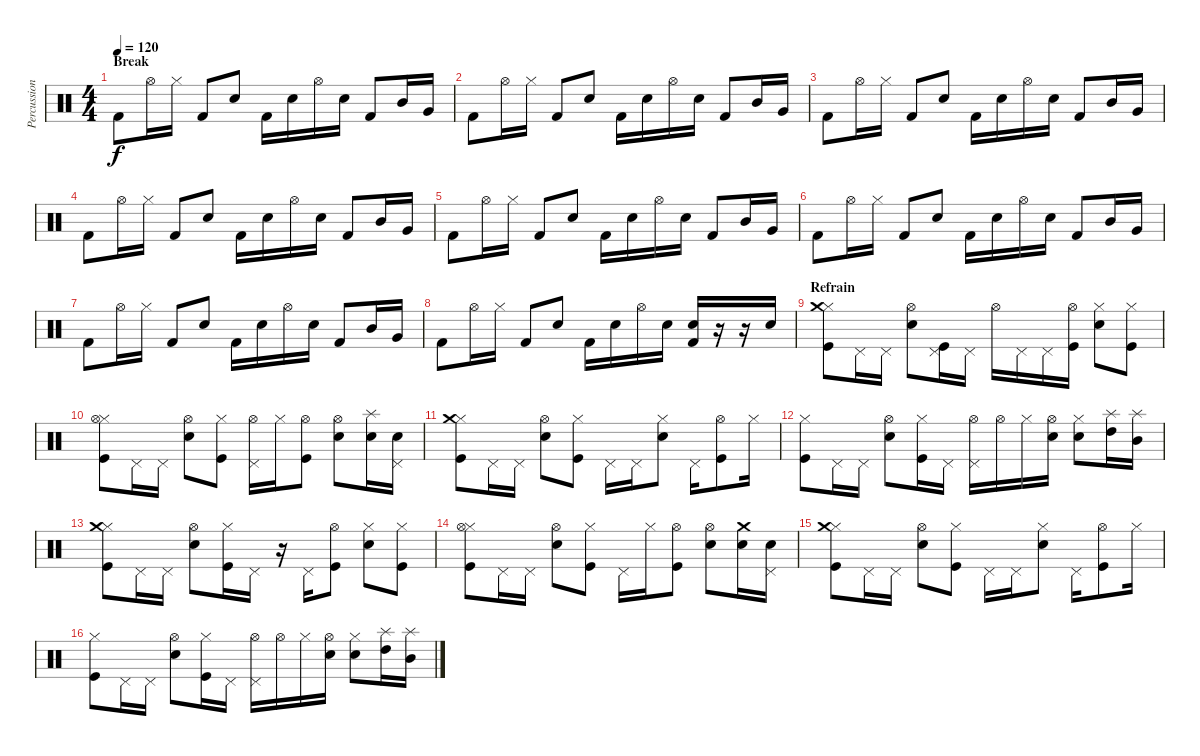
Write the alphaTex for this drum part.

\track ("Percussions" "Percussion") {instrument percussion}
\staff {score}
\articulation defaults
\ts (4 4)
\section ("" "Break")
\tempo 120
\clef neutral
\ks c "Kick (hit) 2".8{dy f} "Hi-Hat (open)".16 "Hi-Hat (closed)".16 "Kick (hit) 2".8 "Electric Snare (hit)".8 "Kick (hit) 2".16 "Electric Snare (hit)".16 "Hi-Hat (open)".16 "Electric Snare (hit)".16 "Kick (hit) 2".8 "Mid Tom (hit)".16 "Very Low Tom (hit)".16
|
"Kick (hit) 2".8 "Hi-Hat (open)".16 "Hi-Hat (closed)".16 "Kick (hit) 2".8 "Electric Snare (hit)".8 "Kick (hit) 2".16 "Electric Snare (hit)".16 "Hi-Hat (open)".16 "Electric Snare (hit)".16 "Kick (hit) 2".8 "Mid Tom (hit)".16 "Very Low Tom (hit)".16 |
"Kick (hit) 2".8 "Hi-Hat (open)".16 "Hi-Hat (closed)".16 "Kick (hit) 2".8 "Electric Snare (hit)".8 "Kick (hit) 2".16 "Electric Snare (hit)".16 "Hi-Hat (open)".16 "Electric Snare (hit)".16 "Kick (hit) 2".8 "Mid Tom (hit)".16 "Very Low Tom (hit)".16 |
"Kick (hit) 2".8 "Hi-Hat (open)".16 "Hi-Hat (closed)".16 "Kick (hit) 2".8 "Electric Snare (hit)".8 "Kick (hit) 2".16 "Electric Snare (hit)".16 "Hi-Hat (open)".16 "Electric Snare (hit)".16 "Kick (hit) 2".8 "Mid Tom (hit)".16 "Very Low Tom (hit)".16 |
"Kick (hit) 2".8 "Hi-Hat (open)".16 "Hi-Hat (closed)".16 "Kick (hit) 2".8 "Electric Snare (hit)".8 "Kick (hit) 2".16 "Electric Snare (hit)".16 "Hi-Hat (open)".16 "Electric Snare (hit)".16 "Kick (hit) 2".8 "Mid Tom (hit)".16 "Very Low Tom (hit)".16 |
"Kick (hit) 2".8 "Hi-Hat (open)".16 "Hi-Hat (closed)".16 "Kick (hit) 2".8 "Electric Snare (hit)".8 "Kick (hit) 2".16 "Electric Snare (hit)".16 "Hi-Hat (open)".16 "Electric Snare (hit)".16 "Kick (hit) 2".8 "Mid Tom (hit)".16 "Very Low Tom (hit)".16 |
"Kick (hit) 2".8 "Hi-Hat (open)".16 "Hi-Hat (closed)".16 "Kick (hit) 2".8 "Electric Snare (hit)".8 "Kick (hit) 2".16 "Electric Snare (hit)".16 "Hi-Hat (open)".16 "Electric Snare (hit)".16 "Kick (hit) 2".8 "Mid Tom (hit)".16 "Very Low Tom (hit)".16 |
"Kick (hit) 2".8 "Hi-Hat (open)".16 "Hi-Hat (closed)".16 "Kick (hit) 2".8 "Electric Snare (hit)".8 "Kick (hit) 2".16 "Electric Snare (hit)".16 "Hi-Hat (open)".16 "Electric Snare (hit)".16 ("Electric Snare (hit)" "Kick (hit) 2").16 r.16 r.16 "Electric Snare (hit)".16 |
\section ("" "Refrain")
("Hi-Hat (closed)" "Crash medium (hit)" "Kick (hit)").8 "Pedal Hi-Hat (hit)".16 "Pedal Hi-Hat (hit)".16 ("Hi-Hat (open)" "Electric Snare (hit)").8 ("Pedal Hi-Hat (hit)" "Kick (hit)").16 "Pedal Hi-Hat (hit)".16 "Hi-Hat (open)".16 "Pedal Hi-Hat (hit)".16 "Pedal Hi-Hat (hit)".16 ("Hi-Hat (open)" "Kick (hit)").16 ("Hi-Hat (closed)" "Electric Snare (hit)").8 ("Hi-Hat (closed)" "Kick (hit)").8 |
("Hi-Hat (closed)" "Hi-Hat (open)" "Kick (hit)").8 "Pedal Hi-Hat (hit)".16 "Pedal Hi-Hat (hit)".16 ("Hi-Hat (open)" "Electric Snare (hit)").8 ("Hi-Hat (closed)" "Kick (hit)").8 ("Hi-Hat (open)" "Pedal Hi-Hat (hit)").16 "Hi-Hat (closed)".16 ("Hi-Hat (open)" "Kick (hit)").8 ("Hi-Hat (open)" "Electric Snare (hit)").8 ("Splash (hit)" "Electric Snare (hit)").16 ("Pedal Hi-Hat (hit)" "Electric Snare (hit)").16 |
("Hi-Hat (closed)" "Crash medium (hit)" "Kick (hit)").8 "Pedal Hi-Hat (hit)".16 "Pedal Hi-Hat (hit)".16 ("Hi-Hat (open)" "Electric Snare (hit)").8 ("Hi-Hat (closed)" "Kick (hit)").8 "Pedal Hi-Hat (hit)".16 "Pedal Hi-Hat (hit)".16 ("Hi-Hat (closed)" "Electric Snare (hit)").8 "Pedal Hi-Hat (hit)".16 ("Hi-Hat (open)" "Kick (hit)").8 "Hi-Hat (closed)".16 |
("Hi-Hat (closed)" "Kick (hit)").8 "Pedal Hi-Hat (hit)".16 "Pedal Hi-Hat (hit)".16 ("Hi-Hat (open)" "Electric Snare (hit)").8 ("Hi-Hat (closed)" "Kick (hit)").16 "Pedal Hi-Hat (hit)".16 ("Hi-Hat (open)" "Pedal Hi-Hat (hit)").16 "Hi-Hat (open)".16 "Hi-Hat (closed)".16 ("Hi-Hat (open)" "Electric Snare (hit)").16 ("Hi-Hat (closed)" "Electric Snare (hit)").8 ("Splash (hit)" "High Tom (hit)").16 ("Splash (hit)" "Mid Tom (hit)").16 |
("Hi-Hat (closed)" "Crash medium (hit)" "Kick (hit)").8 "Pedal Hi-Hat (hit)".16 "Pedal Hi-Hat (hit)".16 ("Hi-Hat (open)" "Electric Snare (hit)").8 ("Hi-Hat (closed)" "Kick (hit)").16 "Pedal Hi-Hat (hit)".16 r.16 "Pedal Hi-Hat (hit)".16 ("Hi-Hat (open)" "Kick (hit)").8 ("Hi-Hat (closed)" "Electric Snare (hit)").8 ("Hi-Hat (closed)" "Kick (hit)").8 |
("Hi-Hat (closed)" "Hi-Hat (open)" "Kick (hit)").8 "Pedal Hi-Hat (hit)".16 "Pedal Hi-Hat (hit)".16 ("Hi-Hat (open)" "Electric Snare (hit)").8 ("Hi-Hat (closed)" "Kick (hit)").8 "Pedal Hi-Hat (hit)".16 "Hi-Hat (closed)".16 ("Hi-Hat (open)" "Kick (hit)").8 ("Hi-Hat (open)" "Electric Snare (hit)").8 ("Crash medium (hit)" "Electric Snare (hit)").16 ("Pedal Hi-Hat (hit)" "Electric Snare (hit)").16 |
("Hi-Hat (closed)" "Crash medium (hit)" "Kick (hit)").8 "Pedal Hi-Hat (hit)".16 "Pedal Hi-Hat (hit)".16 ("Hi-Hat (open)" "Electric Snare (hit)").8 ("Hi-Hat (closed)" "Kick (hit)").8 "Pedal Hi-Hat (hit)".16 "Pedal Hi-Hat (hit)".16 ("Hi-Hat (closed)" "Electric Snare (hit)").8 "Pedal Hi-Hat (hit)".16 ("Hi-Hat (open)" "Kick (hit)").8 "Hi-Hat (closed)".16 |
("Hi-Hat (closed)" "Kick (hit)").8 "Pedal Hi-Hat (hit)".16 "Pedal Hi-Hat (hit)".16 ("Hi-Hat (open)" "Electric Snare (hit)").8 ("Hi-Hat (closed)" "Kick (hit)").16 "Pedal Hi-Hat (hit)".16 ("Hi-Hat (open)" "Pedal Hi-Hat (hit)").16 "Hi-Hat (open)".16 "Hi-Hat (closed)".16 ("Hi-Hat (open)" "Electric Snare (hit)").16 ("Hi-Hat (closed)" "Electric Snare (hit)").8 ("Splash (hit)" "High Tom (hit)").16 ("Splash (hit)" "Mid Tom (hit)").16
